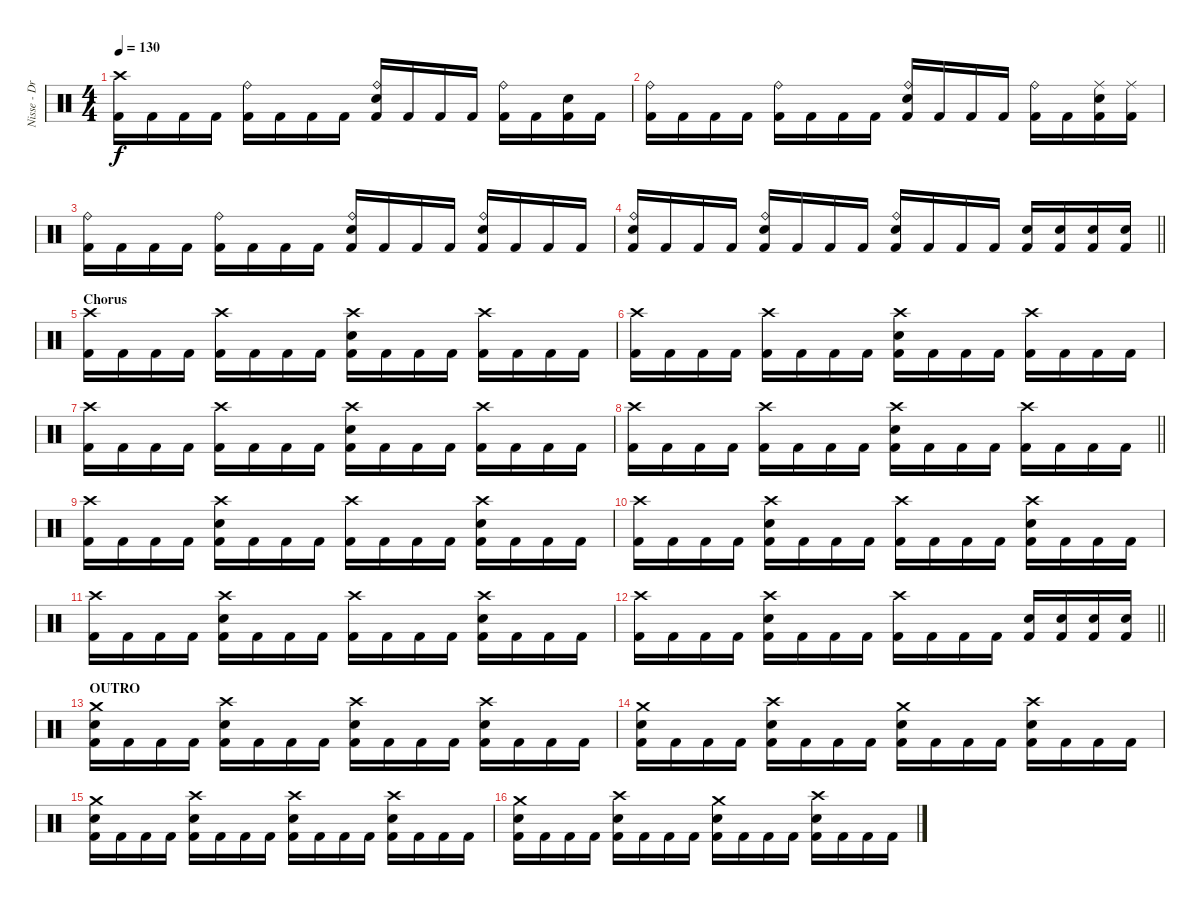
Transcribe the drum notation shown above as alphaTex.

\track ("Nisse - Drums" "Nisse - Dr") {instrument percussion}
\staff {score}
\articulation defaults
\ts (4 4)
\tempo 130
\clef neutral
\ks c
("Crash high (hit)" "Kick (hit) 2").16{dy f} "Kick (hit) 2".16 "Kick (hit) 2".16 "Kick (hit) 2".16 ("Ride (bell)" "Kick (hit) 2").16 "Kick (hit) 2".16 "Kick (hit) 2".16 "Kick (hit) 2".16 ("Ride (bell)" "Electric Snare (hit)" "Kick (hit) 2").16 "Kick (hit) 2".16 "Kick (hit) 2".16 "Kick (hit) 2".16 ("Ride (bell)" "Kick (hit) 2").16 "Kick (hit) 2".16 ("Electric Snare (hit)" "Kick (hit) 2").16 "Kick (hit) 2".16 |
("Ride (bell)" "Kick (hit) 2").16 "Kick (hit) 2".16 "Kick (hit) 2".16 "Kick (hit) 2".16 ("Ride (bell)" "Kick (hit) 2").16 "Kick (hit) 2".16 "Kick (hit) 2".16 "Kick (hit) 2".16 ("Ride (bell)" "Electric Snare (hit)" "Kick (hit) 2").16 "Kick (hit) 2".16 "Kick (hit) 2".16 "Kick (hit) 2".16 ("Ride (bell)" "Kick (hit) 2").16 "Kick (hit) 2".16 ("Ride (middle)" "Electric Snare (hit)" "Kick (hit) 2").16 ("Ride (middle)" "Kick (hit) 2").16 |
("Ride (bell)" "Kick (hit) 2").16 "Kick (hit) 2".16 "Kick (hit) 2".16 "Kick (hit) 2".16 ("Ride (bell)" "Kick (hit) 2").16 "Kick (hit) 2".16 "Kick (hit) 2".16 "Kick (hit) 2".16 ("Ride (bell)" "Electric Snare (hit)" "Kick (hit) 2").16 "Kick (hit) 2".16 "Kick (hit) 2".16 "Kick (hit) 2".16 ("Ride (bell)" "Electric Snare (hit)" "Kick (hit) 2").16 "Kick (hit) 2".16 "Kick (hit) 2".16 "Kick (hit) 2".16 |
\barLineRight lightlight
("Ride (bell)" "Electric Snare (hit)" "Kick (hit) 2").16 "Kick (hit) 2".16 "Kick (hit) 2".16 "Kick (hit) 2".16 ("Ride (bell)" "Electric Snare (hit)" "Kick (hit) 2").16 "Kick (hit) 2".16 "Kick (hit) 2".16 "Kick (hit) 2".16 ("Ride (bell)" "Electric Snare (hit)" "Kick (hit) 2").16 "Kick (hit) 2".16 "Kick (hit) 2".16 "Kick (hit) 2".16 ("Electric Snare (hit)" "Kick (hit) 2").16 ("Electric Snare (hit)" "Kick (hit) 2").16 ("Electric Snare (hit)" "Kick (hit) 2").16 ("Electric Snare (hit)" "Kick (hit) 2").16 |
\section ("" "Chorus")
("Crash high (hit)" "Kick (hit) 2").16 "Kick (hit) 2".16 "Kick (hit) 2".16 "Kick (hit) 2".16 ("Crash high (hit)" "Kick (hit) 2").16 "Kick (hit) 2".16 "Kick (hit) 2".16 "Kick (hit) 2".16 ("Crash high (hit)" "Electric Snare (hit)" "Kick (hit) 2").16 "Kick (hit) 2".16 "Kick (hit) 2".16 "Kick (hit) 2".16 ("Crash high (hit)" "Kick (hit) 2").16 "Kick (hit) 2".16 "Kick (hit) 2".16 "Kick (hit) 2".16 |
("Crash high (hit)" "Kick (hit) 2").16 "Kick (hit) 2".16 "Kick (hit) 2".16 "Kick (hit) 2".16 ("Crash high (hit)" "Kick (hit) 2").16 "Kick (hit) 2".16 "Kick (hit) 2".16 "Kick (hit) 2".16 ("Crash high (hit)" "Electric Snare (hit)" "Kick (hit) 2").16 "Kick (hit) 2".16 "Kick (hit) 2".16 "Kick (hit) 2".16 ("Crash high (hit)" "Kick (hit) 2").16 "Kick (hit) 2".16 "Kick (hit) 2".16 "Kick (hit) 2".16 |
("Crash high (hit)" "Kick (hit) 2").16 "Kick (hit) 2".16 "Kick (hit) 2".16 "Kick (hit) 2".16 ("Crash high (hit)" "Kick (hit) 2").16 "Kick (hit) 2".16 "Kick (hit) 2".16 "Kick (hit) 2".16 ("Crash high (hit)" "Electric Snare (hit)" "Kick (hit) 2").16 "Kick (hit) 2".16 "Kick (hit) 2".16 "Kick (hit) 2".16 ("Crash high (hit)" "Kick (hit) 2").16 "Kick (hit) 2".16 "Kick (hit) 2".16 "Kick (hit) 2".16 |
\barLineRight lightlight
("Crash high (hit)" "Kick (hit) 2").16 "Kick (hit) 2".16 "Kick (hit) 2".16 "Kick (hit) 2".16 ("Crash high (hit)" "Kick (hit) 2").16 "Kick (hit) 2".16 "Kick (hit) 2".16 "Kick (hit) 2".16 ("Crash high (hit)" "Electric Snare (hit)" "Kick (hit) 2").16 "Kick (hit) 2".16 "Kick (hit) 2".16 "Kick (hit) 2".16 ("Crash high (hit)" "Kick (hit) 2").16 "Kick (hit) 2".16 "Kick (hit) 2".16 "Kick (hit) 2".16 |
("Crash high (hit)" "Kick (hit) 2").16 "Kick (hit) 2".16 "Kick (hit) 2".16 "Kick (hit) 2".16 ("Crash high (hit)" "Electric Snare (hit)" "Kick (hit) 2").16 "Kick (hit) 2".16 "Kick (hit) 2".16 "Kick (hit) 2".16 ("Crash high (hit)" "Kick (hit) 2").16 "Kick (hit) 2".16 "Kick (hit) 2".16 "Kick (hit) 2".16 ("Crash high (hit)" "Electric Snare (hit)" "Kick (hit) 2").16 "Kick (hit) 2".16 "Kick (hit) 2".16 "Kick (hit) 2".16 |
("Crash high (hit)" "Kick (hit) 2").16 "Kick (hit) 2".16 "Kick (hit) 2".16 "Kick (hit) 2".16 ("Crash high (hit)" "Electric Snare (hit)" "Kick (hit) 2").16 "Kick (hit) 2".16 "Kick (hit) 2".16 "Kick (hit) 2".16 ("Crash high (hit)" "Kick (hit) 2").16 "Kick (hit) 2".16 "Kick (hit) 2".16 "Kick (hit) 2".16 ("Crash high (hit)" "Electric Snare (hit)" "Kick (hit) 2").16 "Kick (hit) 2".16 "Kick (hit) 2".16 "Kick (hit) 2".16 |
("Crash high (hit)" "Kick (hit) 2").16 "Kick (hit) 2".16 "Kick (hit) 2".16 "Kick (hit) 2".16 ("Crash high (hit)" "Electric Snare (hit)" "Kick (hit) 2").16 "Kick (hit) 2".16 "Kick (hit) 2".16 "Kick (hit) 2".16 ("Crash high (hit)" "Kick (hit) 2").16 "Kick (hit) 2".16 "Kick (hit) 2".16 "Kick (hit) 2".16 ("Crash high (hit)" "Electric Snare (hit)" "Kick (hit) 2").16 "Kick (hit) 2".16 "Kick (hit) 2".16 "Kick (hit) 2".16 |
\barLineRight lightlight
("Crash high (hit)" "Kick (hit) 2").16 "Kick (hit) 2".16 "Kick (hit) 2".16 "Kick (hit) 2".16 ("Crash high (hit)" "Electric Snare (hit)" "Kick (hit) 2").16 "Kick (hit) 2".16 "Kick (hit) 2".16 "Kick (hit) 2".16 ("Crash high (hit)" "Kick (hit) 2").16 "Kick (hit) 2".16 "Kick (hit) 2".16 "Kick (hit) 2".16 ("Electric Snare (hit)" "Kick (hit) 2").16 ("Electric Snare (hit)" "Kick (hit) 2").16 ("Electric Snare (hit)" "Kick (hit) 2").16 ("Electric Snare (hit)" "Kick (hit) 2").16 |
\section ("" "OUTRO")
("Crash medium (hit)" "Electric Snare (hit)" "Kick (hit) 2").16 "Kick (hit) 2".16 "Kick (hit) 2".16 "Kick (hit) 2".16 ("Crash high (hit)" "Electric Snare (hit)" "Kick (hit) 2").16 "Kick (hit) 2".16 "Kick (hit) 2".16 "Kick (hit) 2".16 ("Crash high (hit)" "Electric Snare (hit)" "Kick (hit) 2").16 "Kick (hit) 2".16 "Kick (hit) 2".16 "Kick (hit) 2".16 ("Crash high (hit)" "Electric Snare (hit)" "Kick (hit) 2").16 "Kick (hit) 2".16 "Kick (hit) 2".16 "Kick (hit) 2".16 |
("Crash medium (hit)" "Electric Snare (hit)" "Kick (hit) 2").16 "Kick (hit) 2".16 "Kick (hit) 2".16 "Kick (hit) 2".16 ("Crash high (hit)" "Electric Snare (hit)" "Kick (hit) 2").16 "Kick (hit) 2".16 "Kick (hit) 2".16 "Kick (hit) 2".16 ("Crash medium (hit)" "Electric Snare (hit)" "Kick (hit) 2").16 "Kick (hit) 2".16 "Kick (hit) 2".16 "Kick (hit) 2".16 ("Crash high (hit)" "Electric Snare (hit)" "Kick (hit) 2").16 "Kick (hit) 2".16 "Kick (hit) 2".16 "Kick (hit) 2".16 |
("Crash medium (hit)" "Electric Snare (hit)" "Kick (hit) 2").16 "Kick (hit) 2".16 "Kick (hit) 2".16 "Kick (hit) 2".16 ("Crash high (hit)" "Electric Snare (hit)" "Kick (hit) 2").16 "Kick (hit) 2".16 "Kick (hit) 2".16 "Kick (hit) 2".16 ("Crash high (hit)" "Electric Snare (hit)" "Kick (hit) 2").16 "Kick (hit) 2".16 "Kick (hit) 2".16 "Kick (hit) 2".16 ("Crash high (hit)" "Electric Snare (hit)" "Kick (hit) 2").16 "Kick (hit) 2".16 "Kick (hit) 2".16 "Kick (hit) 2".16 |
("Crash medium (hit)" "Electric Snare (hit)" "Kick (hit) 2").16 "Kick (hit) 2".16 "Kick (hit) 2".16 "Kick (hit) 2".16 ("Crash high (hit)" "Electric Snare (hit)" "Kick (hit) 2").16 "Kick (hit) 2".16 "Kick (hit) 2".16 "Kick (hit) 2".16 ("Crash medium (hit)" "Electric Snare (hit)" "Kick (hit) 2").16 "Kick (hit) 2".16 "Kick (hit) 2".16 "Kick (hit) 2".16 ("Crash high (hit)" "Electric Snare (hit)" "Kick (hit) 2").16 "Kick (hit) 2".16 "Kick (hit) 2".16 "Kick (hit) 2".16
